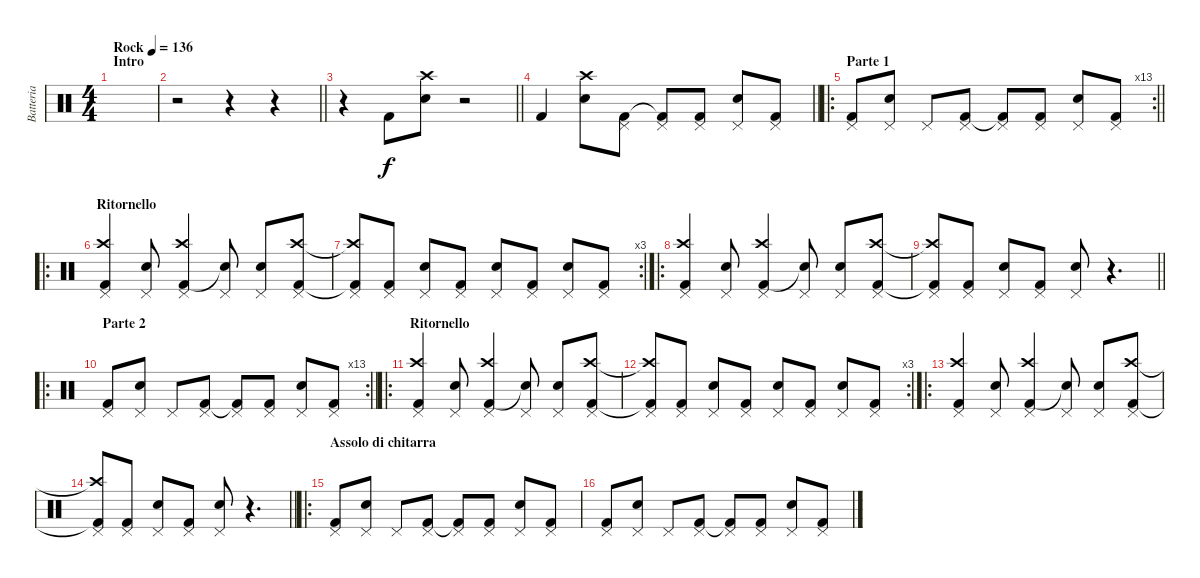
\track ("Batteria" "Batteria") {instrument percussion}
\staff {score}
\articulation defaults
\ts (4 4)
\section ("" "Intro")
\tempo (136 "Rock")
\clef neutral
\ks c
|
\barLineRight lightlight
r.2 r.4 r.4 |
\section ("" "")
\barLineRight lightlight
r.4 "Kick (hit) 2".8 ("Electric Snare (hit)" "Crash high (hit)").8 r.2 |
\section ("" "")
\barLineRight lightlight "Kick (hit) 2".4
("Electric Snare (hit)" "Crash high (hit)").8 ("Kick (hit) 2" "Pedal Hi-Hat (hit)").8 ("Kick (hit) 2"{t} "Pedal Hi-Hat (hit)").8 ("Kick (hit) 2" "Pedal Hi-Hat (hit)").8 ("Electric Snare (hit)" "Pedal Hi-Hat (hit)").8 ("Kick (hit) 2" "Pedal Hi-Hat (hit)").8 |
\ro
\rc 13
\section ("" "Parte 1")
\barLineRight lightlight
("Kick (hit) 2" "Pedal Hi-Hat (hit)").8 ("Electric Snare (hit)" "Pedal Hi-Hat (hit)").8 "Pedal Hi-Hat (hit)".8 ("Kick (hit) 2" "Pedal Hi-Hat (hit)").8 ("Kick (hit) 2"{t} "Pedal Hi-Hat (hit)").8 ("Kick (hit) 2" "Pedal Hi-Hat (hit)").8 ("Electric Snare (hit)" "Pedal Hi-Hat (hit)").8 ("Kick (hit) 2" "Pedal Hi-Hat (hit)").8 |
\ro
\section ("" "Ritornello")
("Kick (hit) 2" "Crash high (hit)" "Pedal Hi-Hat (hit)").4 ("Electric Snare (hit)" "Pedal Hi-Hat (hit)").8 ("Kick (hit) 2" "Crash high (hit)" "Pedal Hi-Hat (hit)").4 ("Snare (hit)"{t} "Pedal Hi-Hat (hit)").8 ("Electric Snare (hit)" "Pedal Hi-Hat (hit)").8 ("Kick (hit) 2" "Crash high (hit)" "Pedal Hi-Hat (hit)").8 |
\rc 3
("Kick (hit) 2"{t} "Crash high (hit)"{t} "Pedal Hi-Hat (hit)").8 ("Kick (hit) 2" "Pedal Hi-Hat (hit)").8 ("Electric Snare (hit)" "Pedal Hi-Hat (hit)").8 ("Kick (hit) 2" "Pedal Hi-Hat (hit)").8 ("Electric Snare (hit)" "Pedal Hi-Hat (hit)").8 ("Kick (hit) 2" "Pedal Hi-Hat (hit)").8 ("Electric Snare (hit)" "Pedal Hi-Hat (hit)").8 ("Kick (hit) 2" "Pedal Hi-Hat (hit)").8 |
\ro
("Kick (hit) 2" "Crash high (hit)" "Pedal Hi-Hat (hit)").4 ("Electric Snare (hit)" "Pedal Hi-Hat (hit)").8 ("Kick (hit) 2" "Crash high (hit)" "Pedal Hi-Hat (hit)").4 ("Snare (hit)"{t} "Pedal Hi-Hat (hit)").8 ("Electric Snare (hit)" "Pedal Hi-Hat (hit)").8 ("Kick (hit) 2" "Crash high (hit)" "Pedal Hi-Hat (hit)").8 |
\barLineRight lightlight
("Kick (hit) 2"{t} "Crash high (hit)"{t} "Pedal Hi-Hat (hit)").8 ("Kick (hit) 2" "Pedal Hi-Hat (hit)").8 ("Electric Snare (hit)" "Pedal Hi-Hat (hit)").8 ("Kick (hit) 2" "Pedal Hi-Hat (hit)").8 ("Electric Snare (hit)" "Pedal Hi-Hat (hit)").8 r.4{d} |
\ro
\rc 13
\section ("" "Parte 2")
\barLineRight lightlight
("Kick (hit) 2" "Pedal Hi-Hat (hit)").8 ("Electric Snare (hit)" "Pedal Hi-Hat (hit)").8 "Pedal Hi-Hat (hit)".8 ("Kick (hit) 2" "Pedal Hi-Hat (hit)").8 ("Kick (hit) 2"{t} "Pedal Hi-Hat (hit)").8 ("Kick (hit) 2" "Pedal Hi-Hat (hit)").8 ("Electric Snare (hit)" "Pedal Hi-Hat (hit)").8 ("Kick (hit) 2" "Pedal Hi-Hat (hit)").8 |
\ro
\section ("" "Ritornello")
("Kick (hit) 2" "Crash high (hit)" "Pedal Hi-Hat (hit)").4 ("Electric Snare (hit)" "Pedal Hi-Hat (hit)").8 ("Kick (hit) 2" "Crash high (hit)" "Pedal Hi-Hat (hit)").4 ("Snare (hit)"{t} "Pedal Hi-Hat (hit)").8 ("Electric Snare (hit)" "Pedal Hi-Hat (hit)").8 ("Kick (hit) 2" "Crash high (hit)" "Pedal Hi-Hat (hit)").8 |
\rc 3
("Kick (hit) 2"{t} "Crash high (hit)"{t} "Pedal Hi-Hat (hit)").8 ("Kick (hit) 2" "Pedal Hi-Hat (hit)").8 ("Electric Snare (hit)" "Pedal Hi-Hat (hit)").8 ("Kick (hit) 2" "Pedal Hi-Hat (hit)").8 ("Electric Snare (hit)" "Pedal Hi-Hat (hit)").8 ("Kick (hit) 2" "Pedal Hi-Hat (hit)").8 ("Electric Snare (hit)" "Pedal Hi-Hat (hit)").8 ("Kick (hit) 2" "Pedal Hi-Hat (hit)").8 |
\ro
("Kick (hit) 2" "Crash high (hit)" "Pedal Hi-Hat (hit)").4 ("Electric Snare (hit)" "Pedal Hi-Hat (hit)").8 ("Kick (hit) 2" "Crash high (hit)" "Pedal Hi-Hat (hit)").4 ("Snare (hit)"{t} "Pedal Hi-Hat (hit)").8 ("Electric Snare (hit)" "Pedal Hi-Hat (hit)").8 ("Kick (hit) 2" "Crash high (hit)" "Pedal Hi-Hat (hit)").8 |
\barLineRight lightlight
("Kick (hit) 2"{t} "Crash high (hit)"{t} "Pedal Hi-Hat (hit)").8 ("Kick (hit) 2" "Pedal Hi-Hat (hit)").8 ("Electric Snare (hit)" "Pedal Hi-Hat (hit)").8 ("Kick (hit) 2" "Pedal Hi-Hat (hit)").8 ("Electric Snare (hit)" "Pedal Hi-Hat (hit)").8 r.4{d} |
\ro
\section ("" "Assolo di chitarra")
("Kick (hit) 2" "Pedal Hi-Hat (hit)").8 ("Electric Snare (hit)" "Pedal Hi-Hat (hit)").8 "Pedal Hi-Hat (hit)".8 ("Kick (hit) 2" "Pedal Hi-Hat (hit)").8 ("Kick (hit) 2"{t} "Pedal Hi-Hat (hit)").8 ("Kick (hit) 2" "Pedal Hi-Hat (hit)").8 ("Electric Snare (hit)" "Pedal Hi-Hat (hit)").8 ("Kick (hit) 2" "Pedal Hi-Hat (hit)").8 |
("Kick (hit) 2" "Pedal Hi-Hat (hit)").8 ("Electric Snare (hit)" "Pedal Hi-Hat (hit)").8 "Pedal Hi-Hat (hit)".8 ("Kick (hit) 2" "Pedal Hi-Hat (hit)").8 ("Kick (hit) 2"{t} "Pedal Hi-Hat (hit)").8 ("Kick (hit) 2" "Pedal Hi-Hat (hit)").8 ("Electric Snare (hit)" "Pedal Hi-Hat (hit)").8 ("Kick (hit) 2" "Pedal Hi-Hat (hit)").8
